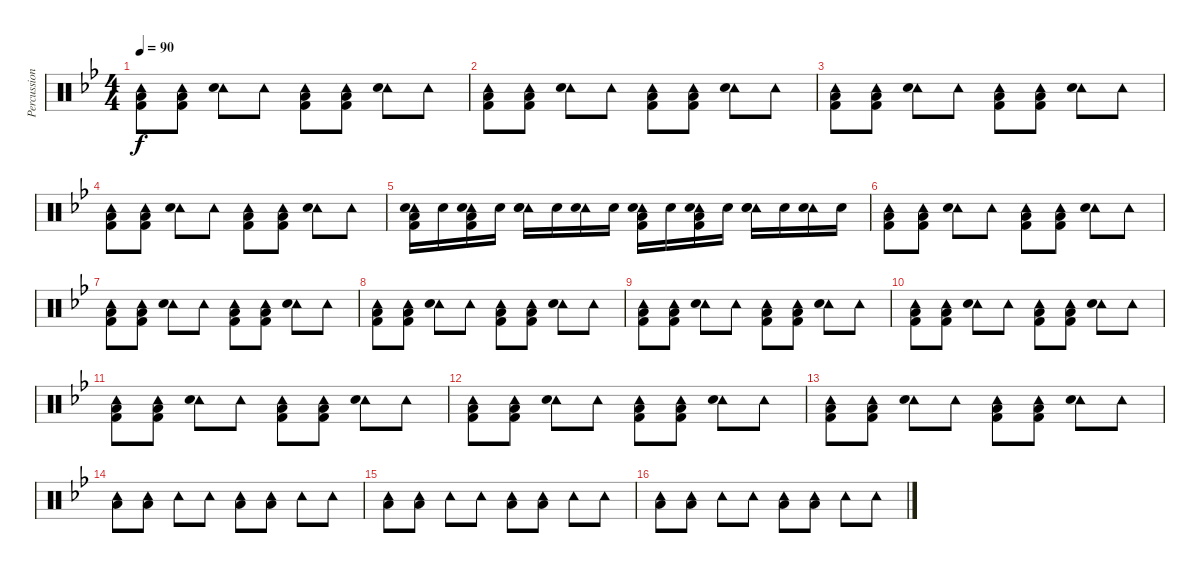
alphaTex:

\track ("Percussion" "Percussion") {instrument percussion}
\staff {score}
\articulation defaults
\ts (4 4)
\tempo 90
\clef neutral
\ks bb
("Tambourine (hit)" "Kick (hit) 2" "Low Tom (hit)").8{dy f} ("Tambourine (hit)" "Kick (hit) 2" "Low Tom (hit)").8 ("Tambourine (hit)" "Electric Snare (hit)").8 "Tambourine (hit)".8 ("Tambourine (hit)" "Kick (hit) 2" "Low Tom (hit)").8 ("Tambourine (hit)" "Kick (hit) 2" "Low Tom (hit)").8 ("Tambourine (hit)" "Electric Snare (hit)").8 "Tambourine (hit)".8 |
("Tambourine (hit)" "Kick (hit) 2" "Low Tom (hit)").8 ("Tambourine (hit)" "Kick (hit) 2" "Low Tom (hit)").8 ("Tambourine (hit)" "Electric Snare (hit)").8 "Tambourine (hit)".8 ("Tambourine (hit)" "Kick (hit) 2" "Low Tom (hit)").8 ("Tambourine (hit)" "Kick (hit) 2" "Low Tom (hit)").8 ("Tambourine (hit)" "Electric Snare (hit)").8 "Tambourine (hit)".8 |
("Tambourine (hit)" "Kick (hit) 2" "Low Tom (hit)").8 ("Tambourine (hit)" "Kick (hit) 2" "Low Tom (hit)").8 ("Tambourine (hit)" "Electric Snare (hit)").8 "Tambourine (hit)".8 ("Tambourine (hit)" "Kick (hit) 2" "Low Tom (hit)").8 ("Tambourine (hit)" "Kick (hit) 2" "Low Tom (hit)").8 ("Tambourine (hit)" "Electric Snare (hit)").8 "Tambourine (hit)".8 |
("Tambourine (hit)" "Kick (hit) 2" "Low Tom (hit)").8 ("Tambourine (hit)" "Kick (hit) 2" "Low Tom (hit)").8 ("Tambourine (hit)" "Electric Snare (hit)").8 "Tambourine (hit)".8 ("Tambourine (hit)" "Kick (hit) 2" "Low Tom (hit)").8 ("Tambourine (hit)" "Kick (hit) 2" "Low Tom (hit)").8 ("Tambourine (hit)" "Electric Snare (hit)").8 "Tambourine (hit)".8 |
("Tambourine (hit)" "Kick (hit) 2" "Low Tom (hit)" "Snare (hit) 2").16 "Snare (hit) 2".16 ("Tambourine (hit)" "Kick (hit) 2" "Low Tom (hit)" "Snare (hit) 2").16 "Snare (hit) 2".16 ("Tambourine (hit)" "Electric Snare (hit)" "Snare (hit) 2").16 "Snare (hit) 2".16 ("Tambourine (hit)" "Snare (hit) 2").16 "Snare (hit) 2".16 ("Tambourine (hit)" "Kick (hit) 2" "Low Tom (hit)" "Snare (hit) 2").16 "Snare (hit) 2".16 ("Tambourine (hit)" "Kick (hit) 2" "Low Tom (hit)" "Snare (hit) 2").16 "Snare (hit) 2".16 ("Tambourine (hit)" "Electric Snare (hit)" "Snare (hit) 2").16 "Snare (hit) 2".16 ("Tambourine (hit)" "Snare (hit) 2").16 "Snare (hit) 2".16 |
("Tambourine (hit)" "Kick (hit) 2" "Low Tom (hit)").8 ("Tambourine (hit)" "Kick (hit) 2" "Low Tom (hit)").8 ("Tambourine (hit)" "Electric Snare (hit)").8 "Tambourine (hit)".8 ("Tambourine (hit)" "Kick (hit) 2" "Low Tom (hit)").8 ("Tambourine (hit)" "Kick (hit) 2" "Low Tom (hit)").8 ("Tambourine (hit)" "Electric Snare (hit)").8 "Tambourine (hit)".8 |
("Tambourine (hit)" "Kick (hit) 2" "Low Tom (hit)").8 ("Tambourine (hit)" "Kick (hit) 2" "Low Tom (hit)").8 ("Tambourine (hit)" "Electric Snare (hit)").8 "Tambourine (hit)".8 ("Tambourine (hit)" "Kick (hit) 2" "Low Tom (hit)").8 ("Tambourine (hit)" "Kick (hit) 2" "Low Tom (hit)").8 ("Tambourine (hit)" "Electric Snare (hit)").8 "Tambourine (hit)".8 |
("Tambourine (hit)" "Kick (hit) 2" "Low Tom (hit)").8 ("Tambourine (hit)" "Kick (hit) 2" "Low Tom (hit)").8 ("Tambourine (hit)" "Electric Snare (hit)").8 "Tambourine (hit)".8 ("Tambourine (hit)" "Kick (hit) 2" "Low Tom (hit)").8 ("Tambourine (hit)" "Kick (hit) 2" "Low Tom (hit)").8 ("Tambourine (hit)" "Electric Snare (hit)").8 "Tambourine (hit)".8 |
("Tambourine (hit)" "Kick (hit) 2" "Low Tom (hit)").8 ("Tambourine (hit)" "Kick (hit) 2" "Low Tom (hit)").8 ("Tambourine (hit)" "Electric Snare (hit)").8 "Tambourine (hit)".8 ("Tambourine (hit)" "Kick (hit) 2" "Low Tom (hit)").8 ("Tambourine (hit)" "Kick (hit) 2" "Low Tom (hit)").8 ("Tambourine (hit)" "Electric Snare (hit)").8 "Tambourine (hit)".8 |
("Tambourine (hit)" "Kick (hit) 2" "Low Tom (hit)").8 ("Tambourine (hit)" "Kick (hit) 2" "Low Tom (hit)").8 ("Tambourine (hit)" "Electric Snare (hit)").8 "Tambourine (hit)".8 ("Tambourine (hit)" "Kick (hit) 2" "Low Tom (hit)").8 ("Tambourine (hit)" "Kick (hit) 2" "Low Tom (hit)").8 ("Tambourine (hit)" "Electric Snare (hit)").8 "Tambourine (hit)".8 |
("Tambourine (hit)" "Kick (hit) 2" "Low Tom (hit)").8 ("Tambourine (hit)" "Kick (hit) 2" "Low Tom (hit)").8 ("Tambourine (hit)" "Electric Snare (hit)").8 "Tambourine (hit)".8 ("Tambourine (hit)" "Kick (hit) 2" "Low Tom (hit)").8 ("Tambourine (hit)" "Kick (hit) 2" "Low Tom (hit)").8 ("Tambourine (hit)" "Electric Snare (hit)").8 "Tambourine (hit)".8 |
("Tambourine (hit)" "Kick (hit) 2" "Low Tom (hit)").8 ("Tambourine (hit)" "Kick (hit) 2" "Low Tom (hit)").8 ("Tambourine (hit)" "Electric Snare (hit)").8 "Tambourine (hit)".8 ("Tambourine (hit)" "Kick (hit) 2" "Low Tom (hit)").8 ("Tambourine (hit)" "Kick (hit) 2" "Low Tom (hit)").8 ("Tambourine (hit)" "Electric Snare (hit)").8 "Tambourine (hit)".8 |
("Tambourine (hit)" "Kick (hit) 2" "Low Tom (hit)").8 ("Tambourine (hit)" "Kick (hit) 2" "Low Tom (hit)").8 ("Tambourine (hit)" "Electric Snare (hit)").8 "Tambourine (hit)".8 ("Tambourine (hit)" "Kick (hit) 2" "Low Tom (hit)").8 ("Tambourine (hit)" "Kick (hit) 2" "Low Tom (hit)").8 ("Tambourine (hit)" "Electric Snare (hit)").8 "Tambourine (hit)".8 |
("Tambourine (hit)" "Low Tom (hit)").8{volume 6} ("Tambourine (hit)" "Low Tom (hit)").8 "Tambourine (hit)".8 "Tambourine (hit)".8 ("Tambourine (hit)" "Low Tom (hit)").8 ("Tambourine (hit)" "Low Tom (hit)").8 "Tambourine (hit)".8 "Tambourine (hit)".8 |
("Tambourine (hit)" "Low Tom (hit)").8{volume 10} ("Tambourine (hit)" "Low Tom (hit)").8 "Tambourine (hit)".8 "Tambourine (hit)".8 ("Tambourine (hit)" "Low Tom (hit)").8 ("Tambourine (hit)" "Low Tom (hit)").8 "Tambourine (hit)".8 "Tambourine (hit)".8 |
("Tambourine (hit)" "Low Tom (hit)").8{volume 10} ("Tambourine (hit)" "Low Tom (hit)").8 "Tambourine (hit)".8 "Tambourine (hit)".8 ("Tambourine (hit)" "Low Tom (hit)").8 ("Tambourine (hit)" "Low Tom (hit)").8 "Tambourine (hit)".8 "Tambourine (hit)".8
